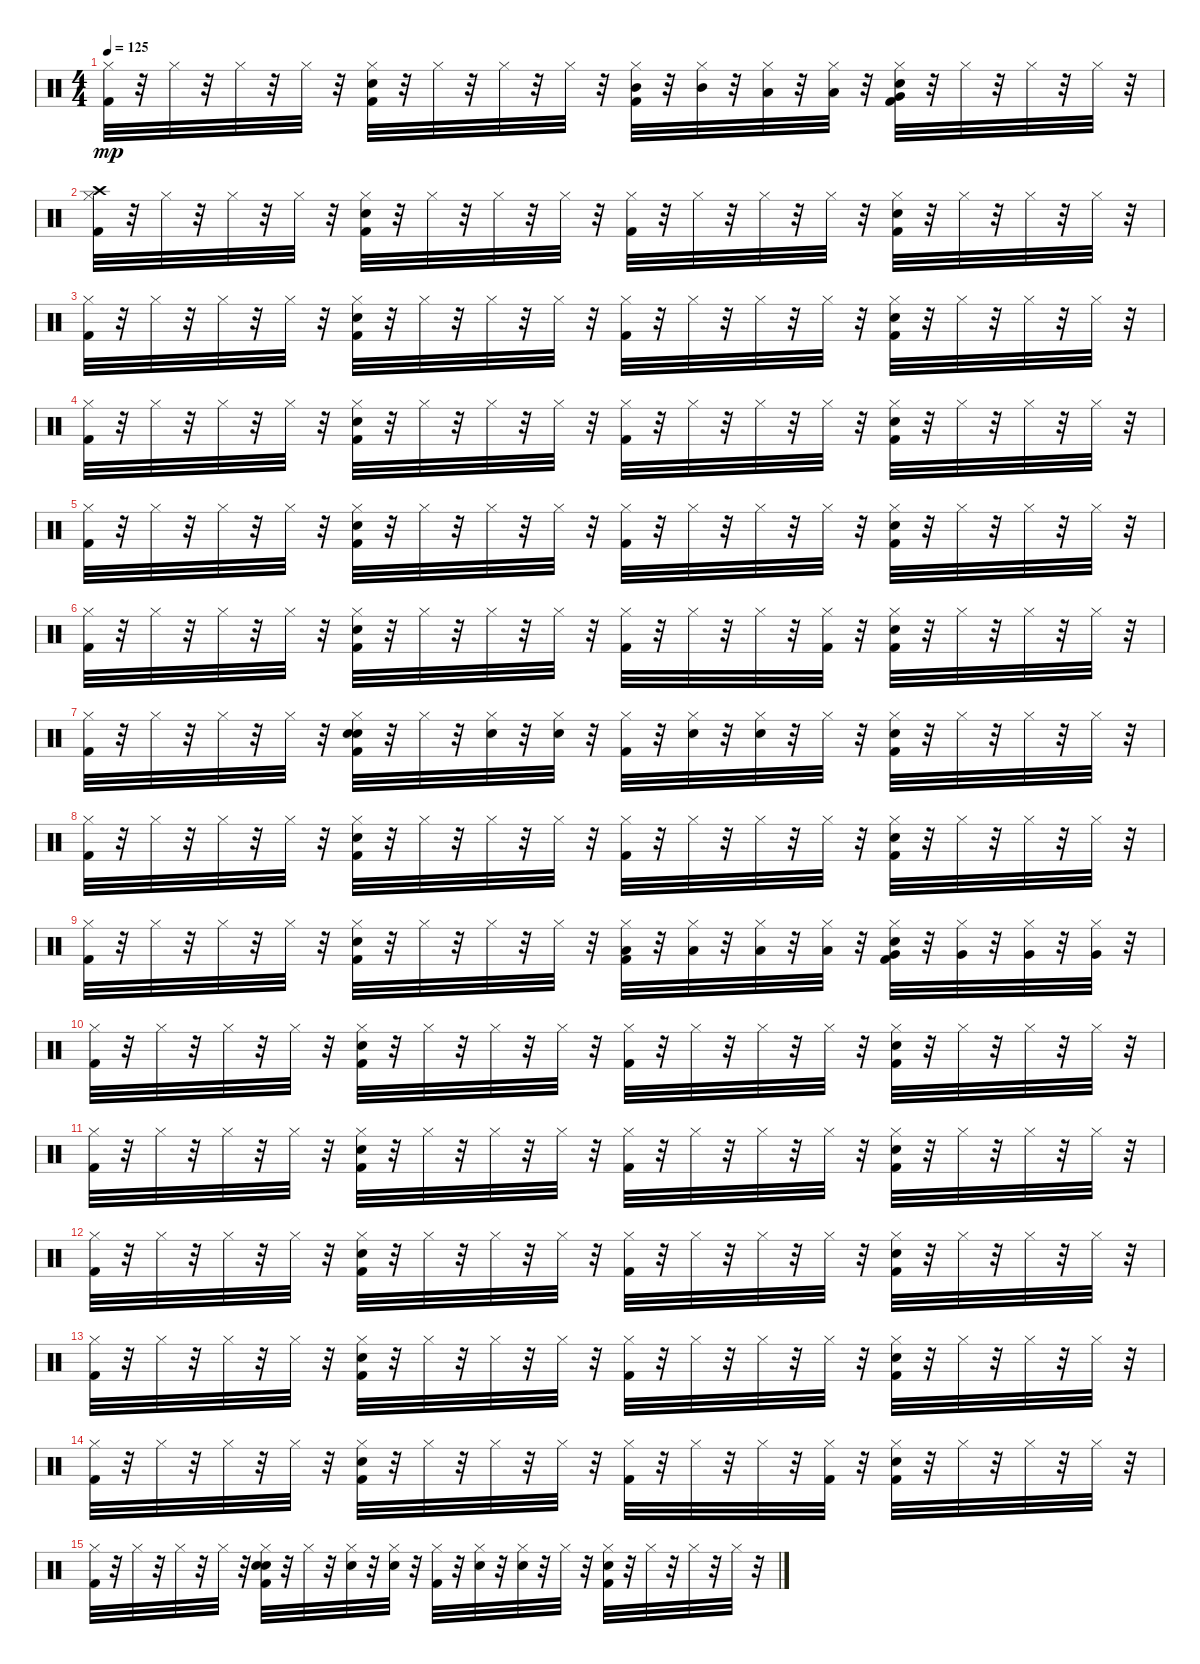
\track "" {instrument percussion}
\staff {score}
\articulation defaults
\ts (4 4)
\tempo 125
\clef neutral
\ks c
("Kick (hit) 2" "Hi-Hat (closed)").32{dy mp} r.32 "Hi-Hat (closed)".32 r.32 "Hi-Hat (closed)".32 r.32 "Hi-Hat (closed)".32 r.32 ("Kick (hit) 2" "Snare (hit) 2" "Hi-Hat (closed)").32 r.32 "Hi-Hat (closed)".32 r.32 "Hi-Hat (closed)".32 r.32 "Hi-Hat (closed)".32 r.32 ("Mid Tom (hit)" "Kick (hit) 2" "Hi-Hat (closed)").32 r.32 ("Mid Tom (hit)" "Hi-Hat (closed)").32 r.32 ("Low Tom (hit)" "Hi-Hat (closed)").32 r.32 ("Low Tom (hit)" "Hi-Hat (closed)").32 r.32 ("Very Low Tom (hit)" "Kick (hit) 2" "Snare (hit) 2" "Hi-Hat (closed)").32 r.32 "Hi-Hat (closed)".32 r.32 "Hi-Hat (closed)".32 r.32 "Hi-Hat (closed)".32 r.32 |
("Crash high (hit)" "Kick (hit) 2" "Hi-Hat (closed)").32 r.32 "Hi-Hat (closed)".32 r.32 "Hi-Hat (closed)".32 r.32 "Hi-Hat (closed)".32 r.32 ("Kick (hit) 2" "Snare (hit) 2" "Hi-Hat (closed)").32 r.32 "Hi-Hat (closed)".32 r.32 "Hi-Hat (closed)".32 r.32 "Hi-Hat (closed)".32 r.32 ("Kick (hit) 2" "Hi-Hat (closed)").32 r.32 "Hi-Hat (closed)".32 r.32 "Hi-Hat (closed)".32 r.32 "Hi-Hat (closed)".32 r.32 ("Kick (hit) 2" "Snare (hit) 2" "Hi-Hat (closed)").32 r.32 "Hi-Hat (closed)".32 r.32 "Hi-Hat (closed)".32 r.32 "Hi-Hat (closed)".32 r.32 |
("Kick (hit) 2" "Hi-Hat (closed)").32 r.32 "Hi-Hat (closed)".32 r.32 "Hi-Hat (closed)".32 r.32 "Hi-Hat (closed)".32 r.32 ("Kick (hit) 2" "Snare (hit) 2" "Hi-Hat (closed)").32 r.32 "Hi-Hat (closed)".32 r.32 "Hi-Hat (closed)".32 r.32 "Hi-Hat (closed)".32 r.32 ("Kick (hit) 2" "Hi-Hat (closed)").32 r.32 "Hi-Hat (closed)".32 r.32 "Hi-Hat (closed)".32 r.32 "Hi-Hat (closed)".32 r.32 ("Kick (hit) 2" "Snare (hit) 2" "Hi-Hat (closed)").32 r.32 "Hi-Hat (closed)".32 r.32 "Hi-Hat (closed)".32 r.32 "Hi-Hat (closed)".32 r.32 |
("Kick (hit) 2" "Hi-Hat (closed)").32 r.32 "Hi-Hat (closed)".32 r.32 "Hi-Hat (closed)".32 r.32 "Hi-Hat (closed)".32 r.32 ("Kick (hit) 2" "Snare (hit) 2" "Hi-Hat (closed)").32 r.32 "Hi-Hat (closed)".32 r.32 "Hi-Hat (closed)".32 r.32 "Hi-Hat (closed)".32 r.32 ("Kick (hit) 2" "Hi-Hat (closed)").32 r.32 "Hi-Hat (closed)".32 r.32 "Hi-Hat (closed)".32 r.32 "Hi-Hat (closed)".32 r.32 ("Kick (hit) 2" "Snare (hit) 2" "Hi-Hat (closed)").32 r.32 "Hi-Hat (closed)".32 r.32 "Hi-Hat (closed)".32 r.32 "Hi-Hat (closed)".32 r.32 |
("Kick (hit) 2" "Hi-Hat (closed)").32 r.32 "Hi-Hat (closed)".32 r.32 "Hi-Hat (closed)".32 r.32 "Hi-Hat (closed)".32 r.32 ("Kick (hit) 2" "Snare (hit) 2" "Hi-Hat (closed)").32 r.32 "Hi-Hat (closed)".32 r.32 "Hi-Hat (closed)".32 r.32 "Hi-Hat (closed)".32 r.32 ("Kick (hit) 2" "Hi-Hat (closed)").32 r.32 "Hi-Hat (closed)".32 r.32 "Hi-Hat (closed)".32 r.32 "Hi-Hat (closed)".32 r.32 ("Kick (hit) 2" "Snare (hit) 2" "Hi-Hat (closed)").32 r.32 "Hi-Hat (closed)".32 r.32 "Hi-Hat (closed)".32 r.32 "Hi-Hat (closed)".32 r.32 |
("Kick (hit) 2" "Hi-Hat (closed)").32 r.32 "Hi-Hat (closed)".32 r.32 "Hi-Hat (closed)".32 r.32 "Hi-Hat (closed)".32 r.32 ("Kick (hit) 2" "Snare (hit) 2" "Hi-Hat (closed)").32 r.32 "Hi-Hat (closed)".32 r.32 "Hi-Hat (closed)".32 r.32 "Hi-Hat (closed)".32 r.32 ("Kick (hit) 2" "Hi-Hat (closed)").32 r.32 "Hi-Hat (closed)".32 r.32 "Hi-Hat (closed)".32 r.32 ("Kick (hit) 2" "Hi-Hat (closed)").32 r.32 ("Kick (hit) 2" "Snare (hit) 2" "Hi-Hat (closed)").32 r.32 "Hi-Hat (closed)".32 r.32 "Hi-Hat (closed)".32 r.32 "Hi-Hat (closed)".32 r.32 |
("Kick (hit) 2" "Hi-Hat (closed)").32 r.32 "Hi-Hat (closed)".32 r.32 "Hi-Hat (closed)".32 r.32 "Hi-Hat (closed)".32 r.32 ("Hand Clap (hit)" "Kick (hit) 2" "Snare (hit) 2" "Hi-Hat (closed)").32 r.32 "Hi-Hat (closed)".32 r.32 ("Hand Clap (hit)" "Hi-Hat (closed)").32 r.32 ("Hand Clap (hit)" "Hi-Hat (closed)").32 r.32 ("Kick (hit) 2" "Hi-Hat (closed)").32 r.32 ("Hand Clap (hit)" "Hi-Hat (closed)").32 r.32 ("Hand Clap (hit)" "Hi-Hat (closed)").32 r.32 "Hi-Hat (closed)".32 r.32 ("Kick (hit) 2" "Snare (hit) 2" "Hi-Hat (closed)").32 r.32 "Hi-Hat (closed)".32 r.32 "Hi-Hat (closed)".32 r.32 "Hi-Hat (closed)".32 r.32 |
("Kick (hit) 2" "Hi-Hat (closed)").32 r.32 "Hi-Hat (closed)".32 r.32 "Hi-Hat (closed)".32 r.32 "Hi-Hat (closed)".32 r.32 ("Kick (hit) 2" "Snare (hit) 2" "Hi-Hat (closed)").32 r.32 "Hi-Hat (closed)".32 r.32 "Hi-Hat (closed)".32 r.32 "Hi-Hat (closed)".32 r.32 ("Kick (hit) 2" "Hi-Hat (closed)").32 r.32 "Hi-Hat (closed)".32 r.32 "Hi-Hat (closed)".32 r.32 "Hi-Hat (closed)".32 r.32 ("Kick (hit) 2" "Snare (hit) 2" "Hi-Hat (closed)").32 r.32 "Hi-Hat (closed)".32 r.32 "Hi-Hat (closed)".32 r.32 "Hi-Hat (closed)".32 r.32 |
("Kick (hit) 2" "Hi-Hat (closed)").32 r.32 "Hi-Hat (closed)".32 r.32 "Hi-Hat (closed)".32 r.32 "Hi-Hat (closed)".32 r.32 ("Kick (hit) 2" "Snare (hit) 2" "Hi-Hat (closed)").32 r.32 "Hi-Hat (closed)".32 r.32 "Hi-Hat (closed)".32 r.32 "Hi-Hat (closed)".32 r.32 ("Low Tom (hit)" "Kick (hit) 2" "Hi-Hat (closed)").32 r.32 ("Low Tom (hit)" "Hi-Hat (closed)").32 r.32 ("Low Tom (hit)" "Hi-Hat (closed)").32 r.32 ("Low Tom (hit)" "Hi-Hat (closed)").32 r.32 ("Very Low Tom (hit)" "Kick (hit) 2" "Snare (hit) 2" "Hi-Hat (closed)").32 r.32 ("Very Low Tom (hit)" "Hi-Hat (closed)").32 r.32 ("Very Low Tom (hit)" "Hi-Hat (closed)").32 r.32 ("Very Low Tom (hit)" "Hi-Hat (closed)").32 r.32 |
("Kick (hit) 2" "Hi-Hat (closed)").32 r.32 "Hi-Hat (closed)".32 r.32 "Hi-Hat (closed)".32 r.32 "Hi-Hat (closed)".32 r.32 ("Kick (hit) 2" "Snare (hit) 2" "Hi-Hat (closed)").32 r.32 "Hi-Hat (closed)".32 r.32 "Hi-Hat (closed)".32 r.32 "Hi-Hat (closed)".32 r.32 ("Kick (hit) 2" "Hi-Hat (closed)").32 r.32 "Hi-Hat (closed)".32 r.32 "Hi-Hat (closed)".32 r.32 "Hi-Hat (closed)".32 r.32 ("Kick (hit) 2" "Snare (hit) 2" "Hi-Hat (closed)").32 r.32 "Hi-Hat (closed)".32 r.32 "Hi-Hat (closed)".32 r.32 "Hi-Hat (closed)".32 r.32 |
("Kick (hit) 2" "Hi-Hat (closed)").32 r.32 "Hi-Hat (closed)".32 r.32 "Hi-Hat (closed)".32 r.32 "Hi-Hat (closed)".32 r.32 ("Kick (hit) 2" "Snare (hit) 2" "Hi-Hat (closed)").32 r.32 "Hi-Hat (closed)".32 r.32 "Hi-Hat (closed)".32 r.32 "Hi-Hat (closed)".32 r.32 ("Kick (hit) 2" "Hi-Hat (closed)").32 r.32 "Hi-Hat (closed)".32 r.32 "Hi-Hat (closed)".32 r.32 "Hi-Hat (closed)".32 r.32 ("Kick (hit) 2" "Snare (hit) 2" "Hi-Hat (closed)").32 r.32 "Hi-Hat (closed)".32 r.32 "Hi-Hat (closed)".32 r.32 "Hi-Hat (closed)".32 r.32 |
("Kick (hit) 2" "Hi-Hat (closed)").32 r.32 "Hi-Hat (closed)".32 r.32 "Hi-Hat (closed)".32 r.32 "Hi-Hat (closed)".32 r.32 ("Kick (hit) 2" "Snare (hit) 2" "Hi-Hat (closed)").32 r.32 "Hi-Hat (closed)".32 r.32 "Hi-Hat (closed)".32 r.32 "Hi-Hat (closed)".32 r.32 ("Kick (hit) 2" "Hi-Hat (closed)").32 r.32 "Hi-Hat (closed)".32 r.32 "Hi-Hat (closed)".32 r.32 "Hi-Hat (closed)".32 r.32 ("Kick (hit) 2" "Snare (hit) 2" "Hi-Hat (closed)").32 r.32 "Hi-Hat (closed)".32 r.32 "Hi-Hat (closed)".32 r.32 "Hi-Hat (closed)".32 r.32 |
("Kick (hit) 2" "Hi-Hat (closed)").32 r.32 "Hi-Hat (closed)".32 r.32 "Hi-Hat (closed)".32 r.32 "Hi-Hat (closed)".32 r.32 ("Kick (hit) 2" "Snare (hit) 2" "Hi-Hat (closed)").32 r.32 "Hi-Hat (closed)".32 r.32 "Hi-Hat (closed)".32 r.32 "Hi-Hat (closed)".32 r.32 ("Kick (hit) 2" "Hi-Hat (closed)").32 r.32 "Hi-Hat (closed)".32 r.32 "Hi-Hat (closed)".32 r.32 "Hi-Hat (closed)".32 r.32 ("Kick (hit) 2" "Snare (hit) 2" "Hi-Hat (closed)").32 r.32 "Hi-Hat (closed)".32 r.32 "Hi-Hat (closed)".32 r.32 "Hi-Hat (closed)".32 r.32 |
("Kick (hit) 2" "Hi-Hat (closed)").32 r.32 "Hi-Hat (closed)".32 r.32 "Hi-Hat (closed)".32 r.32 "Hi-Hat (closed)".32 r.32 ("Kick (hit) 2" "Snare (hit) 2" "Hi-Hat (closed)").32 r.32 "Hi-Hat (closed)".32 r.32 "Hi-Hat (closed)".32 r.32 "Hi-Hat (closed)".32 r.32 ("Kick (hit) 2" "Hi-Hat (closed)").32 r.32 "Hi-Hat (closed)".32 r.32 "Hi-Hat (closed)".32 r.32 ("Kick (hit) 2" "Hi-Hat (closed)").32 r.32 ("Kick (hit) 2" "Snare (hit) 2" "Hi-Hat (closed)").32 r.32 "Hi-Hat (closed)".32 r.32 "Hi-Hat (closed)".32 r.32 "Hi-Hat (closed)".32 r.32 |
("Kick (hit) 2" "Hi-Hat (closed)").32 r.32 "Hi-Hat (closed)".32 r.32 "Hi-Hat (closed)".32 r.32 "Hi-Hat (closed)".32 r.32 ("Hand Clap (hit)" "Kick (hit) 2" "Snare (hit) 2" "Hi-Hat (closed)").32 r.32 "Hi-Hat (closed)".32 r.32 ("Hand Clap (hit)" "Hi-Hat (closed)").32 r.32 ("Hand Clap (hit)" "Hi-Hat (closed)").32 r.32 ("Kick (hit) 2" "Hi-Hat (closed)").32 r.32 ("Hand Clap (hit)" "Hi-Hat (closed)").32 r.32 ("Hand Clap (hit)" "Hi-Hat (closed)").32 r.32 "Hi-Hat (closed)".32 r.32 ("Kick (hit) 2" "Snare (hit) 2" "Hi-Hat (closed)").32 r.32 "Hi-Hat (closed)".32 r.32 "Hi-Hat (closed)".32 r.32 "Hi-Hat (closed)".32 r.32
